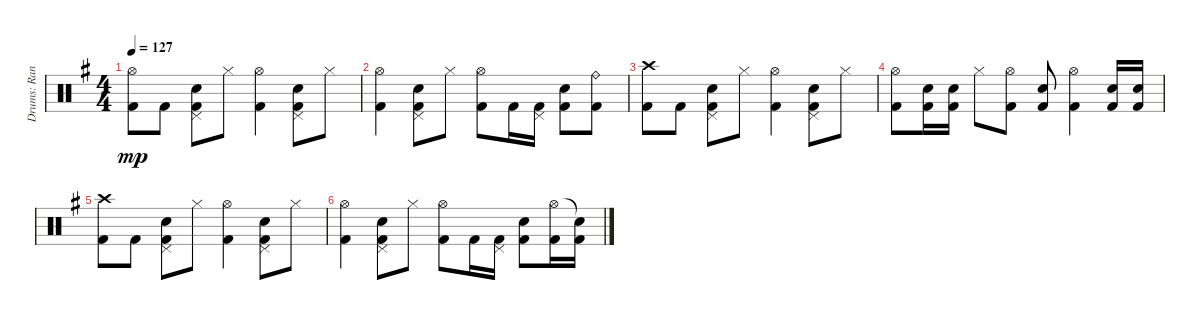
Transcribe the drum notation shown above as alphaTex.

\track ("Drums: Randy" "Drums: Ran") {instrument percussion}
\staff {score}
\articulation defaults
\ts (4 4)
\tempo 127
\clef neutral
\ks g
("Hi-Hat (open)" "Kick (hit) 2").8{dy mp} "Kick (hit) 2".8 ("Pedal Hi-Hat (hit)" "Snare (hit) 2" "Kick (hit) 2").8 "Hi-Hat (closed)".8 ("Hi-Hat (open)" "Kick (hit) 2").4 ("Pedal Hi-Hat (hit)" "Snare (hit) 2" "Kick (hit) 2").8 "Hi-Hat (closed)".8 |
("Hi-Hat (open)" "Kick (hit) 2").4 ("Pedal Hi-Hat (hit)" "Snare (hit) 2" "Kick (hit) 2").8 "Hi-Hat (closed)".8 ("Hi-Hat (open)" "Kick (hit) 2").8 "Kick (hit) 2".16 ("Pedal Hi-Hat (hit)" "Kick (hit) 2").16 ("Snare (hit) 2" "Kick (hit) 2").8 ("Ride (bell)" "Kick (hit) 2").8 |
("Crash high (hit)" "Kick (hit) 2").8{volume 0} "Kick (hit) 2".8 ("Pedal Hi-Hat (hit)" "Snare (hit) 2" "Kick (hit) 2").8 "Hi-Hat (closed)".8 ("Hi-Hat (open)" "Kick (hit) 2").4 ("Pedal Hi-Hat (hit)" "Snare (hit) 2" "Kick (hit) 2").8 "Hi-Hat (closed)".8 |
("Hi-Hat (open)" "Kick (hit) 2").8 ("Snare (hit) 2" "Kick (hit) 2").16 ("Snare (hit) 2" "Kick (hit) 2").16 "Hi-Hat (closed)".8 ("Hi-Hat (open)" "Kick (hit) 2").8 ("Snare (hit) 2" "Kick (hit) 2").8 ("Hi-Hat (open)" "Kick (hit) 2").4 ("Snare (hit) 2" "Kick (hit) 2").16 ("Snare (hit) 2" "Kick (hit) 2").16 |
("Crash high (hit)" "Kick (hit) 2").8 "Kick (hit) 2".8 ("Pedal Hi-Hat (hit)" "Snare (hit) 2" "Kick (hit) 2").8 "Hi-Hat (closed)".8 ("Hi-Hat (open)" "Kick (hit) 2").4 ("Pedal Hi-Hat (hit)" "Snare (hit) 2" "Kick (hit) 2").8 "Hi-Hat (closed)".8 |
("Hi-Hat (open)" "Kick (hit) 2").4 ("Pedal Hi-Hat (hit)" "Snare (hit) 2" "Kick (hit) 2").8 "Hi-Hat (closed)".8 ("Hi-Hat (open)" "Kick (hit) 2").8 "Kick (hit) 2".16 ("Pedal Hi-Hat (hit)" "Kick (hit) 2").16 ("Snare (hit) 2" "Kick (hit) 2").8 ("Hi-Hat (open)" "Kick (hit) 2").16 ("Snare (hit)"{t} "Kick (hit) 2").16
